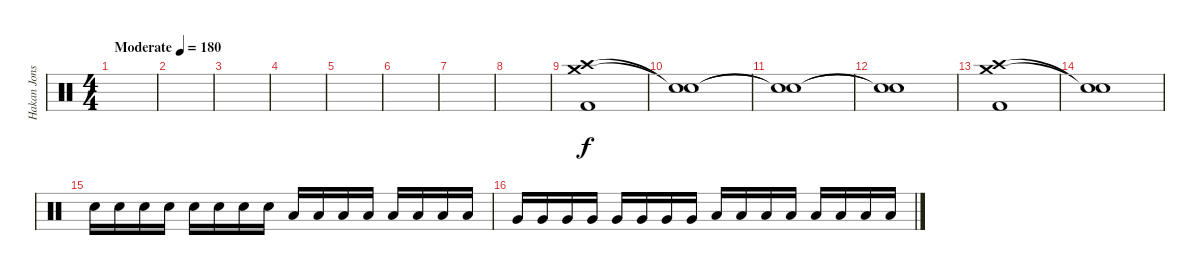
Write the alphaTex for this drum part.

\track ("Hakan Jonsson" "Hakan Jons") {instrument percussion}
\staff {score}
\articulation defaults
\ts (4 4)
\tempo (180 "Moderate")
\clef neutral
\ks c
|
|
|
|
|
|
|
|
("Crash high (hit)" "Crash medium (hit)" "Kick (hit) 2").1 |
("Snare (hit)"{t} "Snare (hit)"{t}).1 |
("Snare (hit)"{t} "Snare (hit)"{t}).1 |
("Snare (hit)"{t} "Snare (hit)"{t}).1 |
("Crash high (hit)" "Crash medium (hit)" "Kick (hit) 2").1 |
("Snare (hit)"{t} "Snare (hit)"{t}).1 |
"Electric Snare (hit)".16 "Electric Snare (hit)".16 "Electric Snare (hit)".16 "Electric Snare (hit)".16 "Electric Snare (hit)".16 "Electric Snare (hit)".16 "Electric Snare (hit)".16 "Electric Snare (hit)".16 "Low Tom (hit)".16 "Low Tom (hit)".16 "Low Tom (hit)".16 "Low Tom (hit)".16 "Low Tom (hit)".16 "Low Tom (hit)".16 "Low Tom (hit)".16 "Low Tom (hit)".16 |
"Very Low Tom (hit)".16 "Very Low Tom (hit)".16 "Very Low Tom (hit)".16 "Very Low Tom (hit)".16 "Very Low Tom (hit)".16 "Very Low Tom (hit)".16 "Very Low Tom (hit)".16 "Very Low Tom (hit)".16 "Low Floor Tom (hit)".16 "Low Floor Tom (hit)".16 "Low Floor Tom (hit)".16 "Low Floor Tom (hit)".16 "Low Floor Tom (hit)".16 "Low Floor Tom (hit)".16 "Low Floor Tom (hit)".16 "Low Floor Tom (hit)".16
